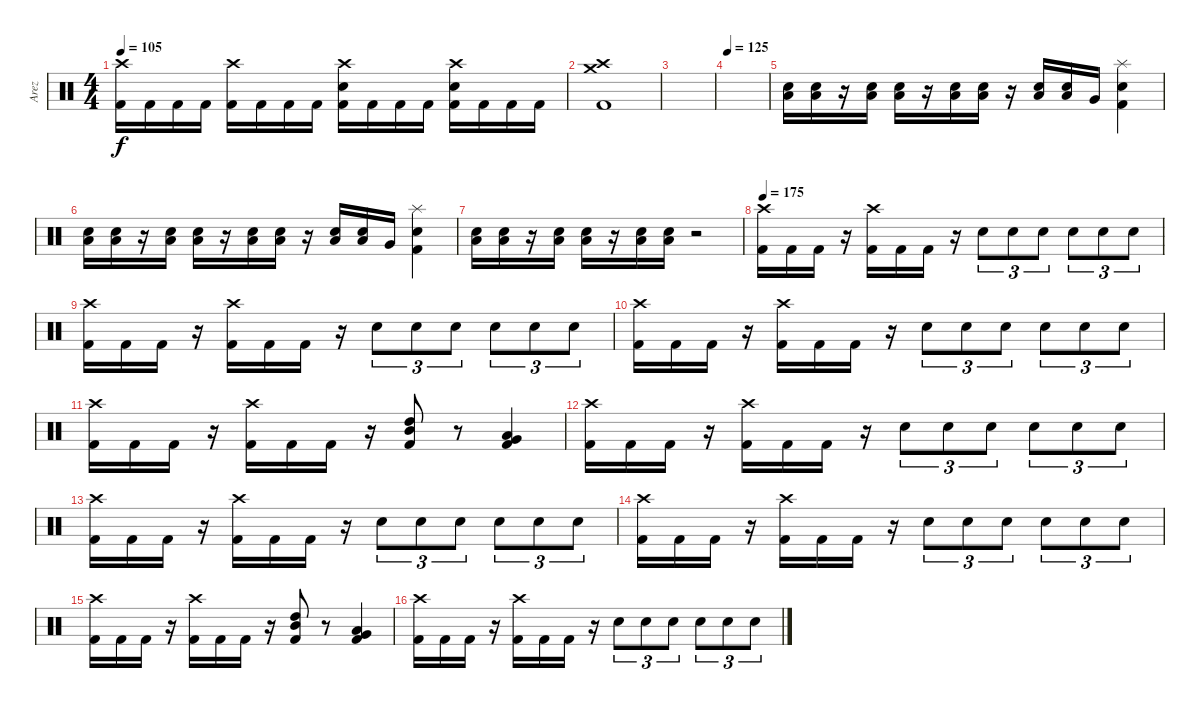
\track ("Arez" "Arez") {instrument percussion}
\staff {score}
\articulation defaults
\ts (4 4)
\tempo 105
\clef neutral
\ks c
("Crash high (hit)" "Kick (hit) 2").16{dy f} "Kick (hit) 2".16 "Kick (hit) 2".16 "Kick (hit) 2".16 ("Kick (hit) 2" "Crash high (hit)").16 "Kick (hit) 2".16 "Kick (hit) 2".16 "Kick (hit) 2".16 ("Crash high (hit)" "Kick (hit) 2" "Electric Snare (hit)").16 "Kick (hit) 2".16 "Kick (hit) 2".16 "Kick (hit) 2".16 ("Kick (hit) 2" "Crash high (hit)" "Electric Snare (hit)").16 "Kick (hit) 2".16 "Kick (hit) 2".16 "Kick (hit) 2".16 |
("Crash high (hit)" "Crash medium (hit)" "Kick (hit) 2").1 |
|
\tempo 125
|
("Electric Snare (hit)" "Low Floor Tom (hit)").16 ("Electric Snare (hit)" "Low Floor Tom (hit)").16 r.16 ("Electric Snare (hit)" "Low Floor Tom (hit)").16 ("Electric Snare (hit)" "Low Floor Tom (hit)").16 r.16 ("Electric Snare (hit)" "Low Floor Tom (hit)").16 ("Electric Snare (hit)" "Low Floor Tom (hit)").16 r.16 ("Electric Snare (hit)" "Low Floor Tom (hit)").16 ("Electric Snare (hit)" "Low Floor Tom (hit)").16 "Very Low Tom (hit)".16 ("Kick (hit) 2" "Electric Snare (hit)" "Splash (hit)").4 |
("Electric Snare (hit)" "Low Floor Tom (hit)").16 ("Electric Snare (hit)" "Low Floor Tom (hit)").16 r.16 ("Electric Snare (hit)" "Low Floor Tom (hit)").16 ("Electric Snare (hit)" "Low Floor Tom (hit)").16 r.16 ("Electric Snare (hit)" "Low Floor Tom (hit)").16 ("Electric Snare (hit)" "Low Floor Tom (hit)").16 r.16 ("Electric Snare (hit)" "Low Floor Tom (hit)").16 ("Electric Snare (hit)" "Low Floor Tom (hit)").16 "Very Low Tom (hit)".16 ("Kick (hit) 2" "Electric Snare (hit)" "Splash (hit)").4 |
("Electric Snare (hit)" "Low Floor Tom (hit)").16 ("Electric Snare (hit)" "Low Floor Tom (hit)").16 r.16 ("Electric Snare (hit)" "Low Floor Tom (hit)").16 ("Electric Snare (hit)" "Low Floor Tom (hit)").16 r.16 ("Electric Snare (hit)" "Low Floor Tom (hit)").16 ("Electric Snare (hit)" "Low Floor Tom (hit)").16 r.2 |
\tempo 175
("Kick (hit) 2" "Crash high (hit)").16 "Kick (hit) 2".16 "Kick (hit) 2".16 r.16 ("Crash high (hit)" "Kick (hit) 2").16 "Kick (hit) 2".16 "Kick (hit) 2".16 r.16 "Electric Snare (hit)".8{tu (3 2)} "Electric Snare (hit)".8{tu (3 2)} "Electric Snare (hit)".8{tu (3 2)} "Electric Snare (hit)".8{tu (3 2)} "Electric Snare (hit)".8{tu (3 2)} "Electric Snare (hit)".8{tu (3 2)} |
("Kick (hit) 2" "Crash high (hit)").16 "Kick (hit) 2".16 "Kick (hit) 2".16 r.16 ("Crash high (hit)" "Kick (hit) 2").16 "Kick (hit) 2".16 "Kick (hit) 2".16 r.16 "Electric Snare (hit)".8{tu (3 2)} "Electric Snare (hit)".8{tu (3 2)} "Electric Snare (hit)".8{tu (3 2)} "Electric Snare (hit)".8{tu (3 2)} "Electric Snare (hit)".8{tu (3 2)} "Electric Snare (hit)".8{tu (3 2)} |
("Kick (hit) 2" "Crash high (hit)").16 "Kick (hit) 2".16 "Kick (hit) 2".16 r.16 ("Crash high (hit)" "Kick (hit) 2").16 "Kick (hit) 2".16 "Kick (hit) 2".16 r.16 "Electric Snare (hit)".8{tu (3 2)} "Electric Snare (hit)".8{tu (3 2)} "Electric Snare (hit)".8{tu (3 2)} "Electric Snare (hit)".8{tu (3 2)} "Electric Snare (hit)".8{tu (3 2)} "Electric Snare (hit)".8{tu (3 2)} |
("Kick (hit) 2" "Crash high (hit)").16 "Kick (hit) 2".16 "Kick (hit) 2".16 r.16 ("Crash high (hit)" "Kick (hit) 2").16 "Kick (hit) 2".16 "Kick (hit) 2".16 r.16 ("Kick (hit) 2" "High Tom (hit)" "Mid Tom (hit)").8 r.8 ("Very Low Tom (hit)" "Low Tom (hit)" "Kick (hit) 2").4 |
("Kick (hit) 2" "Crash high (hit)").16 "Kick (hit) 2".16 "Kick (hit) 2".16 r.16 ("Crash high (hit)" "Kick (hit) 2").16 "Kick (hit) 2".16 "Kick (hit) 2".16 r.16 "Electric Snare (hit)".8{tu (3 2)} "Electric Snare (hit)".8{tu (3 2)} "Electric Snare (hit)".8{tu (3 2)} "Electric Snare (hit)".8{tu (3 2)} "Electric Snare (hit)".8{tu (3 2)} "Electric Snare (hit)".8{tu (3 2)} |
("Kick (hit) 2" "Crash high (hit)").16 "Kick (hit) 2".16 "Kick (hit) 2".16 r.16 ("Crash high (hit)" "Kick (hit) 2").16 "Kick (hit) 2".16 "Kick (hit) 2".16 r.16 "Electric Snare (hit)".8{tu (3 2)} "Electric Snare (hit)".8{tu (3 2)} "Electric Snare (hit)".8{tu (3 2)} "Electric Snare (hit)".8{tu (3 2)} "Electric Snare (hit)".8{tu (3 2)} "Electric Snare (hit)".8{tu (3 2)} |
("Kick (hit) 2" "Crash high (hit)").16 "Kick (hit) 2".16 "Kick (hit) 2".16 r.16 ("Crash high (hit)" "Kick (hit) 2").16 "Kick (hit) 2".16 "Kick (hit) 2".16 r.16 "Electric Snare (hit)".8{tu (3 2)} "Electric Snare (hit)".8{tu (3 2)} "Electric Snare (hit)".8{tu (3 2)} "Electric Snare (hit)".8{tu (3 2)} "Electric Snare (hit)".8{tu (3 2)} "Electric Snare (hit)".8{tu (3 2)} |
("Kick (hit) 2" "Crash high (hit)").16 "Kick (hit) 2".16 "Kick (hit) 2".16 r.16 ("Crash high (hit)" "Kick (hit) 2").16 "Kick (hit) 2".16 "Kick (hit) 2".16 r.16 ("Kick (hit) 2" "High Tom (hit)" "Mid Tom (hit)").8 r.8 ("Very Low Tom (hit)" "Low Tom (hit)" "Kick (hit) 2").4 |
("Kick (hit) 2" "Crash high (hit)").16 "Kick (hit) 2".16 "Kick (hit) 2".16 r.16 ("Crash high (hit)" "Kick (hit) 2").16 "Kick (hit) 2".16 "Kick (hit) 2".16 r.16 "Electric Snare (hit)".8{tu (3 2)} "Electric Snare (hit)".8{tu (3 2)} "Electric Snare (hit)".8{tu (3 2)} "Electric Snare (hit)".8{tu (3 2)} "Electric Snare (hit)".8{tu (3 2)} "Electric Snare (hit)".8{tu (3 2)}
